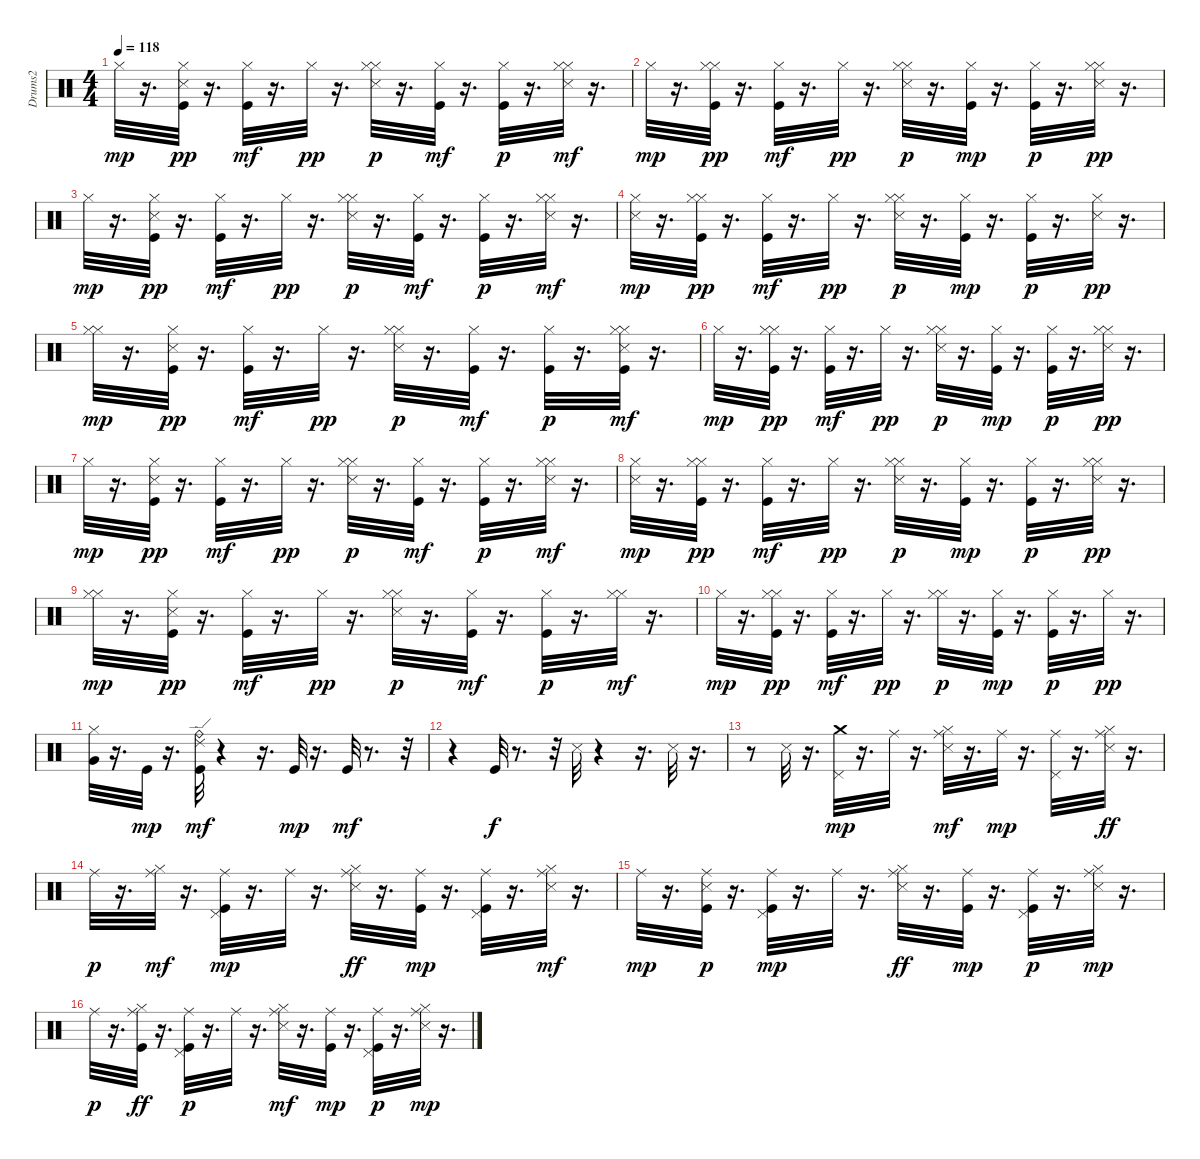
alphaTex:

\track ("Drums2" "Drums2") {instrument percussion}
\staff {score}
\articulation defaults
\ts (4 4)
\tempo 118
\clef neutral
\ks c "Hi-Hat (closed)".32{dy mp}
r.16{d} ("Kick (hit)" "Snare (side stick) 3" "Hi-Hat (closed)").32{dy pp} r.16{d} ("Kick (hit)" "Hi-Hat (closed)").32{dy mf} r.16{d} "Hi-Hat (closed)".32{dy pp} r.16{d} ("Hi-Hat (closed)" "Snare (side stick) 3" "Hi-Hat (closed)").32{dy p} r.16{d} ("Kick (hit)" "Hi-Hat (closed)").32{dy mf} r.16{d} ("Kick (hit)" "Hi-Hat (closed)").32{dy p} r.16{d} ("Hi-Hat (closed)" "Snare (side stick) 3" "Hi-Hat (closed)").32{dy mf} r.16{d} |
"Hi-Hat (closed)".32{dy mp} r.16{d} ("Hi-Hat (closed)" "Kick (hit)" "Hi-Hat (closed)").32{dy pp} r.16{d} ("Kick (hit)" "Hi-Hat (closed)").32{dy mf} r.16{d} "Hi-Hat (closed)".32{dy pp} r.16{d} ("Hi-Hat (closed)" "Snare (side stick) 3" "Hi-Hat (closed)").32{dy p} r.16{d} ("Kick (hit)" "Hi-Hat (closed)").32{dy mp} r.16{d} ("Kick (hit)" "Hi-Hat (closed)").32{dy p} r.16{d} ("Hi-Hat (closed)" "Snare (side stick) 3" "Hi-Hat (closed)").32{dy pp} r.16{d} |
"Hi-Hat (closed)".32{dy mp} r.16{d} ("Kick (hit)" "Snare (side stick) 3" "Hi-Hat (closed)").32{dy pp} r.16{d} ("Kick (hit)" "Hi-Hat (closed)").32{dy mf} r.16{d} "Hi-Hat (closed)".32{dy pp} r.16{d} ("Hi-Hat (closed)" "Snare (side stick) 3" "Hi-Hat (closed)").32{dy p} r.16{d} ("Kick (hit)" "Hi-Hat (closed)").32{dy mf} r.16{d} ("Kick (hit)" "Hi-Hat (closed)").32{dy p} r.16{d} ("Hi-Hat (closed)" "Snare (side stick) 3" "Hi-Hat (closed)").32{dy mf} r.16{d} |
("Snare (side stick) 3" "Hi-Hat (closed)").32{dy mp} r.16{d} ("Hi-Hat (closed)" "Kick (hit)" "Hi-Hat (closed)").32{dy pp} r.16{d} ("Kick (hit)" "Hi-Hat (closed)").32{dy mf} r.16{d} "Hi-Hat (closed)".32{dy pp} r.16{d} ("Hi-Hat (closed)" "Snare (side stick) 3" "Hi-Hat (closed)").32{dy p} r.16{d} ("Kick (hit)" "Hi-Hat (closed)").32{dy mp} r.16{d} ("Kick (hit)" "Hi-Hat (closed)").32{dy p} r.16{d} ("Snare (side stick) 3" "Hi-Hat (closed)").32{dy pp} r.16{d} |
("Hi-Hat (closed)" "Hi-Hat (closed)").32{dy mp} r.16{d} ("Kick (hit)" "Snare (side stick) 3" "Hi-Hat (closed)").32{dy pp} r.16{d} ("Kick (hit)" "Hi-Hat (closed)").32{dy mf} r.16{d} "Hi-Hat (closed)".32{dy pp} r.16{d} ("Hi-Hat (closed)" "Snare (side stick) 3" "Hi-Hat (closed)").32{dy p} r.16{d} ("Kick (hit)" "Hi-Hat (closed)").32{dy mf} r.16{d} ("Kick (hit)" "Hi-Hat (closed)").32{dy p} r.16{d} ("Hi-Hat (closed)" "Kick (hit)" "Snare (side stick) 3" "Hi-Hat (closed)").32{dy mf} r.16{d} |
"Hi-Hat (closed)".32{dy mp} r.16{d} ("Hi-Hat (closed)" "Kick (hit)" "Hi-Hat (closed)").32{dy pp} r.16{d} ("Kick (hit)" "Hi-Hat (closed)").32{dy mf} r.16{d} "Hi-Hat (closed)".32{dy pp} r.16{d} ("Hi-Hat (closed)" "Snare (side stick) 3" "Hi-Hat (closed)").32{dy p} r.16{d} ("Kick (hit)" "Hi-Hat (closed)").32{dy mp} r.16{d} ("Kick (hit)" "Hi-Hat (closed)").32{dy p} r.16{d} ("Hi-Hat (closed)" "Snare (side stick) 3" "Hi-Hat (closed)").32{dy pp} r.16{d} |
"Hi-Hat (closed)".32{dy mp} r.16{d} ("Kick (hit)" "Snare (side stick) 3" "Hi-Hat (closed)").32{dy pp} r.16{d} ("Kick (hit)" "Hi-Hat (closed)").32{dy mf} r.16{d} "Hi-Hat (closed)".32{dy pp} r.16{d} ("Hi-Hat (closed)" "Snare (side stick) 3" "Hi-Hat (closed)").32{dy p} r.16{d} ("Kick (hit)" "Hi-Hat (closed)").32{dy mf} r.16{d} ("Kick (hit)" "Hi-Hat (closed)").32{dy p} r.16{d} ("Hi-Hat (closed)" "Snare (side stick) 3" "Hi-Hat (closed)").32{dy mf} r.16{d} |
("Snare (side stick) 3" "Hi-Hat (closed)").32{dy mp} r.16{d} ("Hi-Hat (closed)" "Kick (hit)" "Hi-Hat (closed)").32{dy pp} r.16{d} ("Kick (hit)" "Hi-Hat (closed)").32{dy mf} r.16{d} "Hi-Hat (closed)".32{dy pp} r.16{d} ("Hi-Hat (closed)" "Snare (side stick) 3" "Hi-Hat (closed)").32{dy p} r.16{d} ("Kick (hit)" "Hi-Hat (closed)").32{dy mp} r.16{d} ("Kick (hit)" "Hi-Hat (closed)").32{dy p} r.16{d} ("Hi-Hat (closed)" "Snare (side stick) 3" "Hi-Hat (closed)").32{dy pp} r.16{d} |
("Hi-Hat (closed)" "Hi-Hat (closed)").32{dy mp} r.16{d} ("Kick (hit)" "Snare (side stick) 3" "Hi-Hat (closed)").32{dy pp} r.16{d} ("Kick (hit)" "Hi-Hat (closed)").32{dy mf} r.16{d} "Hi-Hat (closed)".32{dy pp} r.16{d} ("Hi-Hat (closed)" "Snare (side stick) 3" "Hi-Hat (closed)").32{dy p} r.16{d} ("Kick (hit)" "Hi-Hat (closed)").32{dy mf} r.16{d} ("Kick (hit)" "Hi-Hat (closed)").32{dy p} r.16{d} ("Hi-Hat (closed)" "Hi-Hat (closed)").32{dy mf} r.16{d} |
"Hi-Hat (closed)".32{dy mp} r.16{d} ("Hi-Hat (closed)" "Kick (hit)" "Hi-Hat (closed)").32{dy pp} r.16{d} ("Kick (hit)" "Hi-Hat (closed)").32{dy mf} r.16{d} "Hi-Hat (closed)".32{dy pp} r.16{d} ("Hi-Hat (closed)" "Hi-Hat (closed)").32{dy p} r.16{d} ("Kick (hit)" "Hi-Hat (closed)").32{dy mp} r.16{d} ("Kick (hit)" "Hi-Hat (closed)").32{dy p} r.16{d} "Hi-Hat (closed)".32{dy pp} r.16{d} |
("Hi-Hat (closed)" "Very Low Tom (hit)").32 r.16{d} "Kick (hit)".32{dy mp} r.16{d} ("Ride (edge) 2" "Ride (bell)" "Kick (hit)").32{dy mf} r.4 r.16{d} "Kick (hit)".32{dy mp} r.16{d} "Kick (hit)".32{dy mf} r.8{d} r.32 |
r.4 "Kick (hit)".32{dy f} r.8{d} r.32 "Snare (side stick) 3".32 r.4 r.16{d} "Snare (side stick) 3".32 r.16{d} |
r.8 "Snare (side stick) 3".32 r.16{d} ("Crash medium (hit)" "Pedal Hi-Hat (hit)").32{dy mp} r.16{d} "Ride (middle)".32 r.16{d} ("Hi-Hat (closed)" "Snare (side stick) 3" "Ride (middle)").32{dy mf} r.16{d} "Ride (middle)".32{dy mp} r.16{d} ("Ride (middle)" "Pedal Hi-Hat (hit)").32 r.16{d} ("Hi-Hat (closed)" "Snare (side stick) 3" "Ride (middle)").32{dy ff} r.16{d} |
"Ride (middle)".32{dy p} r.16{d} ("Ride (middle)" "Hi-Hat (closed)").32{dy mf} r.16{d} ("Kick (hit)" "Pedal Hi-Hat (hit)" "Ride (middle)").32{dy mp} r.16{d} "Ride (middle)".32 r.16{d} ("Hi-Hat (closed)" "Snare (side stick) 3" "Ride (middle)").32{dy ff} r.16{d} ("Ride (middle)" "Kick (hit)").32{dy mp} r.16{d} ("Kick (hit)" "Pedal Hi-Hat (hit)" "Ride (middle)").32 r.16{d} ("Hi-Hat (closed)" "Snare (side stick) 3" "Ride (middle)").32{dy mf} r.16{d} |
"Ride (middle)".32{dy mp} r.16{d} ("Kick (hit)" "Snare (side stick) 3" "Ride (middle)").32{dy p} r.16{d} ("Kick (hit)" "Pedal Hi-Hat (hit)" "Ride (middle)").32{dy mp} r.16{d} "Ride (middle)".32 r.16{d} ("Hi-Hat (closed)" "Snare (side stick) 3" "Ride (middle)").32{dy ff} r.16{d} ("Ride (middle)" "Kick (hit)").32{dy mp} r.16{d} ("Kick (hit)" "Pedal Hi-Hat (hit)" "Ride (middle)").32{dy p} r.16{d} ("Hi-Hat (closed)" "Snare (side stick) 3" "Ride (middle)").32{dy mp} r.16{d} |
"Ride (middle)".32{dy p} r.16{d} ("Hi-Hat (closed)" "Kick (hit)" "Ride (middle)").32{dy ff} r.16{d} ("Kick (hit)" "Pedal Hi-Hat (hit)" "Ride (middle)").32{dy p} r.16{d} "Ride (middle)".32 r.16{d} ("Hi-Hat (closed)" "Snare (side stick) 3" "Ride (middle)").32{dy mf} r.16{d} ("Ride (middle)" "Kick (hit)").32{dy mp} r.16{d} ("Kick (hit)" "Pedal Hi-Hat (hit)" "Ride (middle)").32{dy p} r.16{d} ("Hi-Hat (closed)" "Snare (side stick) 3" "Ride (middle)").32{dy mp} r.16{d}
